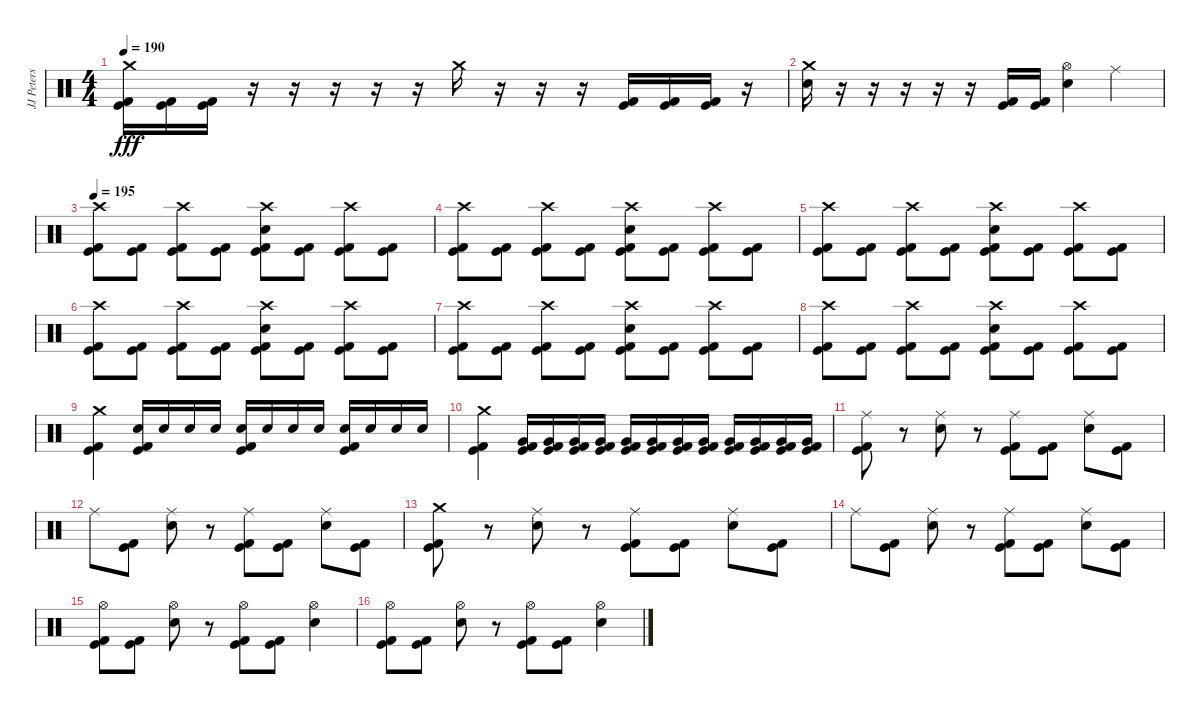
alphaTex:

\track ("JJ Peters" "JJ Peters") {instrument percussion}
\staff {score}
\articulation defaults
\ts (4 4)
\tempo 190
\clef neutral
\ks c
("Crash medium (hit)" "Kick (hit)" "Kick (hit) 2").16{dy fff} ("Kick (hit)" "Kick (hit) 2").16 ("Kick (hit)" "Kick (hit) 2").16 r.16 r.16 r.16 r.16 r.16 "Crash medium (hit)".16 r.16 r.16 r.16 ("Kick (hit)" "Kick (hit) 2").16 ("Kick (hit)" "Kick (hit) 2").16 ("Kick (hit)" "Kick (hit) 2").16 r.16 |
("Crash medium (hit)" "Electric Snare (hit)").16 r.16 r.16 r.16 r.16 r.16 ("Kick (hit)" "Kick (hit) 2").16 ("Kick (hit)" "Kick (hit) 2").16 ("Hi-Hat (open)" "Electric Snare (hit)").4 "Ride (middle)".4 |
\tempo 195
("Crash high (hit)" "Kick (hit)" "Kick (hit) 2").8 ("Kick (hit)" "Kick (hit) 2").8 ("Crash high (hit)" "Kick (hit)" "Kick (hit) 2").8 ("Kick (hit)" "Kick (hit) 2").8 ("Crash high (hit)" "Electric Snare (hit)" "Kick (hit)" "Kick (hit) 2").8 ("Kick (hit)" "Kick (hit) 2").8 ("Crash high (hit)" "Kick (hit)" "Kick (hit) 2").8 ("Kick (hit)" "Kick (hit) 2").8 |
("Crash high (hit)" "Kick (hit)" "Kick (hit) 2").8 ("Kick (hit)" "Kick (hit) 2").8 ("Crash high (hit)" "Kick (hit)" "Kick (hit) 2").8 ("Kick (hit)" "Kick (hit) 2").8 ("Crash high (hit)" "Electric Snare (hit)" "Kick (hit)" "Kick (hit) 2").8 ("Kick (hit)" "Kick (hit) 2").8 ("Crash high (hit)" "Kick (hit)" "Kick (hit) 2").8 ("Kick (hit)" "Kick (hit) 2").8 |
("Crash high (hit)" "Kick (hit)" "Kick (hit) 2").8 ("Kick (hit)" "Kick (hit) 2").8 ("Crash high (hit)" "Kick (hit)" "Kick (hit) 2").8 ("Kick (hit)" "Kick (hit) 2").8 ("Crash high (hit)" "Electric Snare (hit)" "Kick (hit)" "Kick (hit) 2").8 ("Kick (hit)" "Kick (hit) 2").8 ("Crash high (hit)" "Kick (hit)" "Kick (hit) 2").8 ("Kick (hit)" "Kick (hit) 2").8 |
("Crash high (hit)" "Kick (hit)" "Kick (hit) 2").8 ("Kick (hit)" "Kick (hit) 2").8 ("Crash high (hit)" "Kick (hit)" "Kick (hit) 2").8 ("Kick (hit)" "Kick (hit) 2").8 ("Crash high (hit)" "Electric Snare (hit)" "Kick (hit)" "Kick (hit) 2").8 ("Kick (hit)" "Kick (hit) 2").8 ("Crash high (hit)" "Kick (hit)" "Kick (hit) 2").8 ("Kick (hit)" "Kick (hit) 2").8 |
("Crash high (hit)" "Kick (hit)" "Kick (hit) 2").8 ("Kick (hit)" "Kick (hit) 2").8 ("Crash high (hit)" "Kick (hit)" "Kick (hit) 2").8 ("Kick (hit)" "Kick (hit) 2").8 ("Crash high (hit)" "Electric Snare (hit)" "Kick (hit)" "Kick (hit) 2").8 ("Kick (hit)" "Kick (hit) 2").8 ("Crash high (hit)" "Kick (hit)" "Kick (hit) 2").8 ("Kick (hit)" "Kick (hit) 2").8 |
("Crash high (hit)" "Kick (hit)" "Kick (hit) 2").8 ("Kick (hit)" "Kick (hit) 2").8 ("Crash high (hit)" "Kick (hit)" "Kick (hit) 2").8 ("Kick (hit)" "Kick (hit) 2").8 ("Crash high (hit)" "Electric Snare (hit)" "Kick (hit)" "Kick (hit) 2").8 ("Kick (hit)" "Kick (hit) 2").8 ("Crash high (hit)" "Kick (hit)" "Kick (hit) 2").8 ("Kick (hit)" "Kick (hit) 2").8 |
("Crash medium (hit)" "Kick (hit)" "Kick (hit) 2").4 ("Electric Snare (hit)" "Kick (hit)" "Kick (hit) 2").16 "Electric Snare (hit)".16 "Electric Snare (hit)".16 "Electric Snare (hit)".16 ("Electric Snare (hit)" "Kick (hit)" "Kick (hit) 2").16 "Electric Snare (hit)".16 "Electric Snare (hit)".16 "Electric Snare (hit)".16 ("Electric Snare (hit)" "Kick (hit)" "Kick (hit) 2").16 "Electric Snare (hit)".16 "Electric Snare (hit)".16 "Electric Snare (hit)".16 |
("Crash medium (hit)" "Kick (hit)" "Kick (hit) 2").4 ("Very Low Tom (hit)" "Kick (hit)" "Kick (hit) 2").16 ("Very Low Tom (hit)" "Kick (hit)" "Kick (hit) 2").16 ("Very Low Tom (hit)" "Kick (hit)" "Kick (hit) 2").16 ("Very Low Tom (hit)" "Kick (hit)" "Kick (hit) 2").16 ("Very Low Tom (hit)" "Kick (hit)" "Kick (hit) 2").16 ("Very Low Tom (hit)" "Kick (hit)" "Kick (hit) 2").16 ("Very Low Tom (hit)" "Kick (hit)" "Kick (hit) 2").16 ("Very Low Tom (hit)" "Kick (hit)" "Kick (hit) 2").16 ("Very Low Tom (hit)" "Kick (hit)" "Kick (hit) 2").16 ("Very Low Tom (hit)" "Kick (hit)" "Kick (hit) 2").16 ("Very Low Tom (hit)" "Kick (hit)" "Kick (hit) 2").16 ("Very Low Tom (hit)" "Kick (hit)" "Kick (hit) 2").16 |
("Ride (middle)" "Kick (hit)" "Kick (hit) 2").8 r.8 ("Ride (middle)" "Electric Snare (hit)").8 r.8 ("Ride (middle)" "Kick (hit)" "Kick (hit) 2").8 ("Kick (hit)" "Kick (hit) 2").8 ("Ride (middle)" "Electric Snare (hit)").8 ("Kick (hit)" "Kick (hit) 2").8 |
"Ride (middle)".8 ("Kick (hit)" "Kick (hit) 2").8 ("Ride (middle)" "Electric Snare (hit)").8 r.8 ("Ride (middle)" "Kick (hit)" "Kick (hit) 2").8 ("Kick (hit)" "Kick (hit) 2").8 ("Ride (middle)" "Electric Snare (hit)").8 ("Kick (hit)" "Kick (hit) 2").8 |
("Crash medium (hit)" "Kick (hit)" "Kick (hit) 2").8 r.8 ("Ride (middle)" "Electric Snare (hit)").8 r.8 ("Ride (middle)" "Kick (hit)" "Kick (hit) 2").8 ("Kick (hit)" "Kick (hit) 2").8 ("Ride (middle)" "Electric Snare (hit)").8 ("Kick (hit)" "Kick (hit) 2").8 |
"Ride (middle)".8 ("Kick (hit)" "Kick (hit) 2").8 ("Ride (middle)" "Electric Snare (hit)").8 r.8 ("Ride (middle)" "Kick (hit)" "Kick (hit) 2").8 ("Kick (hit)" "Kick (hit) 2").8 ("Ride (middle)" "Electric Snare (hit)").8 ("Kick (hit)" "Kick (hit) 2").8 |
("Hi-Hat (open)" "Kick (hit)" "Kick (hit) 2").8 ("Kick (hit)" "Kick (hit) 2").8 ("Hi-Hat (open)" "Electric Snare (hit)").8 r.8 ("Hi-Hat (open)" "Kick (hit)" "Kick (hit) 2").8 ("Kick (hit)" "Kick (hit) 2").8 ("Hi-Hat (open)" "Electric Snare (hit)").4 |
("Hi-Hat (open)" "Kick (hit)" "Kick (hit) 2").8 ("Kick (hit)" "Kick (hit) 2").8 ("Hi-Hat (open)" "Electric Snare (hit)").8 r.8 ("Hi-Hat (open)" "Kick (hit)" "Kick (hit) 2").8 ("Kick (hit)" "Kick (hit) 2").8 ("Hi-Hat (open)" "Electric Snare (hit)").4
